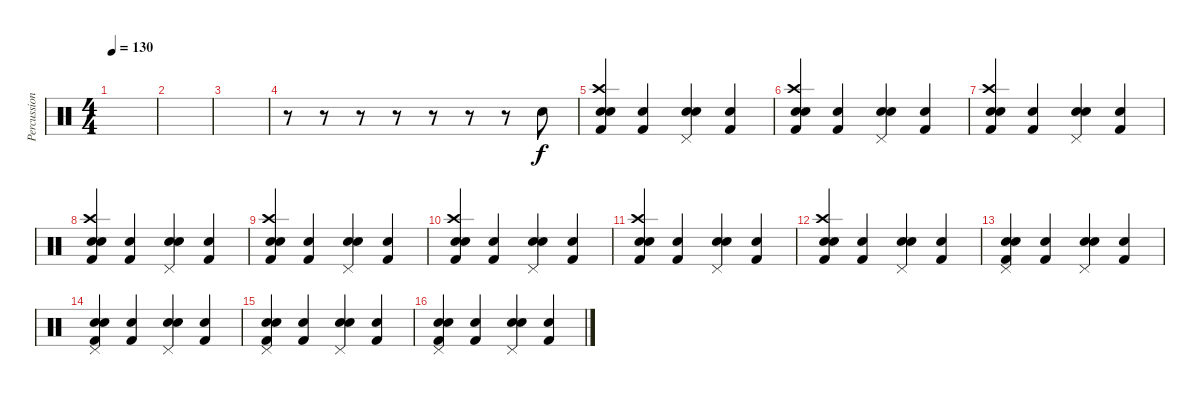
\track ("Percussion" "Percussion") {instrument percussion}
\staff {score}
\articulation defaults
\ts (4 4)
\tempo 130
\clef neutral
\ks c
|
|
|
r.8 r.8 r.8 r.8 r.8 r.8 r.8 "Snare (hit) 2".8 |
("Crash high (hit)" "Snare (hit) 2" "Kick (hit) 2" "Snare (hit) 2").4 ("Kick (hit) 2" "Snare (hit) 2").4 ("Pedal Hi-Hat (hit)" "Snare (hit) 2" "Snare (hit) 2").4 ("Snare (hit) 2" "Kick (hit) 2").4 |
("Crash high (hit)" "Snare (hit) 2" "Kick (hit) 2" "Snare (hit) 2").4 ("Kick (hit) 2" "Snare (hit) 2").4 ("Pedal Hi-Hat (hit)" "Snare (hit) 2" "Snare (hit) 2").4 ("Snare (hit) 2" "Kick (hit) 2").4 |
("Crash high (hit)" "Snare (hit) 2" "Kick (hit) 2" "Snare (hit) 2").4 ("Kick (hit) 2" "Snare (hit) 2").4 ("Pedal Hi-Hat (hit)" "Snare (hit) 2" "Snare (hit) 2").4 ("Snare (hit) 2" "Kick (hit) 2").4 |
("Crash high (hit)" "Snare (hit) 2" "Kick (hit) 2" "Snare (hit) 2").4 ("Kick (hit) 2" "Snare (hit) 2").4 ("Pedal Hi-Hat (hit)" "Snare (hit) 2" "Snare (hit) 2").4 ("Snare (hit) 2" "Kick (hit) 2").4 |
("Crash high (hit)" "Snare (hit) 2" "Kick (hit) 2" "Snare (hit) 2").4 ("Kick (hit) 2" "Snare (hit) 2").4 ("Pedal Hi-Hat (hit)" "Snare (hit) 2" "Snare (hit) 2").4 ("Snare (hit) 2" "Kick (hit) 2").4 |
("Crash high (hit)" "Snare (hit) 2" "Kick (hit) 2" "Snare (hit) 2").4 ("Kick (hit) 2" "Snare (hit) 2").4 ("Pedal Hi-Hat (hit)" "Snare (hit) 2" "Snare (hit) 2").4 ("Snare (hit) 2" "Kick (hit) 2").4 |
("Crash high (hit)" "Snare (hit) 2" "Kick (hit) 2" "Snare (hit) 2").4 ("Kick (hit) 2" "Snare (hit) 2").4 ("Pedal Hi-Hat (hit)" "Snare (hit) 2" "Snare (hit) 2").4 ("Snare (hit) 2" "Kick (hit) 2").4 |
("Crash high (hit)" "Snare (hit) 2" "Kick (hit) 2" "Snare (hit) 2").4 ("Kick (hit) 2" "Snare (hit) 2").4 ("Pedal Hi-Hat (hit)" "Snare (hit) 2" "Snare (hit) 2").4 ("Snare (hit) 2" "Kick (hit) 2").4 |
("Pedal Hi-Hat (hit)" "Snare (hit) 2" "Kick (hit) 2" "Snare (hit) 2").4{volume 10} ("Kick (hit) 2" "Snare (hit) 2").4 ("Pedal Hi-Hat (hit)" "Snare (hit) 2" "Snare (hit) 2").4 ("Snare (hit) 2" "Kick (hit) 2").4 |
("Pedal Hi-Hat (hit)" "Snare (hit) 2" "Kick (hit) 2" "Snare (hit) 2").4{volume 10} ("Kick (hit) 2" "Snare (hit) 2").4 ("Pedal Hi-Hat (hit)" "Snare (hit) 2" "Snare (hit) 2").4 ("Snare (hit) 2" "Kick (hit) 2").4 |
("Pedal Hi-Hat (hit)" "Snare (hit) 2" "Kick (hit) 2" "Snare (hit) 2").4{volume 10} ("Kick (hit) 2" "Snare (hit) 2").4 ("Pedal Hi-Hat (hit)" "Snare (hit) 2" "Snare (hit) 2").4 ("Snare (hit) 2" "Kick (hit) 2").4 |
("Pedal Hi-Hat (hit)" "Snare (hit) 2" "Kick (hit) 2" "Snare (hit) 2").4{volume 10} ("Kick (hit) 2" "Snare (hit) 2").4 ("Pedal Hi-Hat (hit)" "Snare (hit) 2" "Snare (hit) 2").4 ("Snare (hit) 2" "Kick (hit) 2").4
